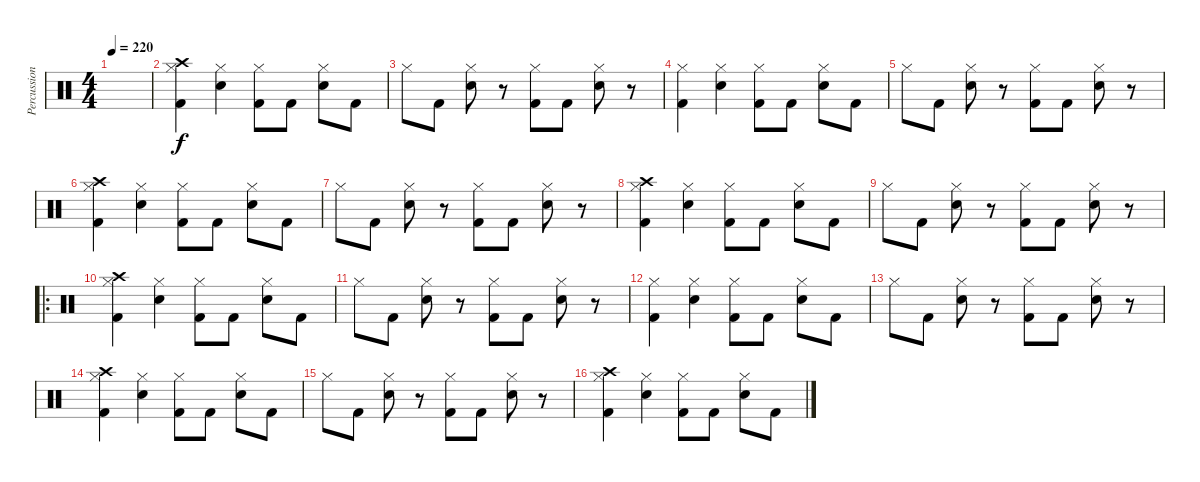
\track ("Percussions" "Percussion") {instrument percussion}
\staff {score}
\articulation defaults
\ts (4 4)
\tempo 220
\clef neutral
\ks c
|
("Crash high (hit)" "Hi-Hat (closed)" "Kick (hit) 2").4 ("Hi-Hat (closed)" "Electric Snare (hit)").4 ("Hi-Hat (closed)" "Kick (hit) 2").8 "Kick (hit) 2".8 ("Hi-Hat (closed)" "Electric Snare (hit)").8 "Kick (hit) 2".8 |
"Hi-Hat (closed)".8 "Kick (hit) 2".8 ("Hi-Hat (closed)" "Electric Snare (hit)").8 r.8 ("Hi-Hat (closed)" "Kick (hit) 2").8 "Kick (hit) 2".8 ("Hi-Hat (closed)" "Electric Snare (hit)").8 r.8 |
("Hi-Hat (closed)" "Kick (hit) 2").4 ("Hi-Hat (closed)" "Electric Snare (hit)").4 ("Hi-Hat (closed)" "Kick (hit) 2").8 "Kick (hit) 2".8 ("Hi-Hat (closed)" "Electric Snare (hit)").8 "Kick (hit) 2".8 |
"Hi-Hat (closed)".8 "Kick (hit) 2".8 ("Hi-Hat (closed)" "Electric Snare (hit)").8 r.8 ("Hi-Hat (closed)" "Kick (hit) 2").8 "Kick (hit) 2".8 ("Hi-Hat (closed)" "Electric Snare (hit)").8 r.8 |
("Crash high (hit)" "Hi-Hat (closed)" "Kick (hit) 2").4 ("Hi-Hat (closed)" "Electric Snare (hit)").4 ("Hi-Hat (closed)" "Kick (hit) 2").8 "Kick (hit) 2".8 ("Hi-Hat (closed)" "Electric Snare (hit)").8 "Kick (hit) 2".8 |
"Hi-Hat (closed)".8 "Kick (hit) 2".8 ("Hi-Hat (closed)" "Electric Snare (hit)").8 r.8 ("Hi-Hat (closed)" "Kick (hit) 2").8 "Kick (hit) 2".8 ("Hi-Hat (closed)" "Electric Snare (hit)").8 r.8 |
("Crash high (hit)" "Hi-Hat (closed)" "Kick (hit) 2").4 ("Hi-Hat (closed)" "Electric Snare (hit)").4 ("Hi-Hat (closed)" "Kick (hit) 2").8 "Kick (hit) 2".8 ("Hi-Hat (closed)" "Electric Snare (hit)").8 "Kick (hit) 2".8 |
"Hi-Hat (closed)".8 "Kick (hit) 2".8 ("Hi-Hat (closed)" "Electric Snare (hit)").8 r.8 ("Hi-Hat (closed)" "Kick (hit) 2").8 "Kick (hit) 2".8 ("Hi-Hat (closed)" "Electric Snare (hit)").8 r.8 |
\ro
("Crash high (hit)" "Hi-Hat (closed)" "Kick (hit) 2").4 ("Hi-Hat (closed)" "Electric Snare (hit)").4 ("Hi-Hat (closed)" "Kick (hit) 2").8 "Kick (hit) 2".8 ("Hi-Hat (closed)" "Electric Snare (hit)").8 "Kick (hit) 2".8 |
"Hi-Hat (closed)".8 "Kick (hit) 2".8 ("Hi-Hat (closed)" "Electric Snare (hit)").8 r.8 ("Hi-Hat (closed)" "Kick (hit) 2").8 "Kick (hit) 2".8 ("Hi-Hat (closed)" "Electric Snare (hit)").8 r.8 |
("Hi-Hat (closed)" "Kick (hit) 2").4 ("Hi-Hat (closed)" "Electric Snare (hit)").4 ("Hi-Hat (closed)" "Kick (hit) 2").8 "Kick (hit) 2".8 ("Hi-Hat (closed)" "Electric Snare (hit)").8 "Kick (hit) 2".8 |
"Hi-Hat (closed)".8 "Kick (hit) 2".8 ("Hi-Hat (closed)" "Electric Snare (hit)").8 r.8 ("Hi-Hat (closed)" "Kick (hit) 2").8 "Kick (hit) 2".8 ("Hi-Hat (closed)" "Electric Snare (hit)").8 r.8 |
("Crash high (hit)" "Hi-Hat (closed)" "Kick (hit) 2").4 ("Hi-Hat (closed)" "Electric Snare (hit)").4 ("Hi-Hat (closed)" "Kick (hit) 2").8 "Kick (hit) 2".8 ("Hi-Hat (closed)" "Electric Snare (hit)").8 "Kick (hit) 2".8 |
"Hi-Hat (closed)".8 "Kick (hit) 2".8 ("Hi-Hat (closed)" "Electric Snare (hit)").8 r.8 ("Hi-Hat (closed)" "Kick (hit) 2").8 "Kick (hit) 2".8 ("Hi-Hat (closed)" "Electric Snare (hit)").8 r.8 |
("Crash high (hit)" "Hi-Hat (closed)" "Kick (hit) 2").4 ("Hi-Hat (closed)" "Electric Snare (hit)").4 ("Hi-Hat (closed)" "Kick (hit) 2").8 "Kick (hit) 2".8 ("Hi-Hat (closed)" "Electric Snare (hit)").8 "Kick (hit) 2".8
